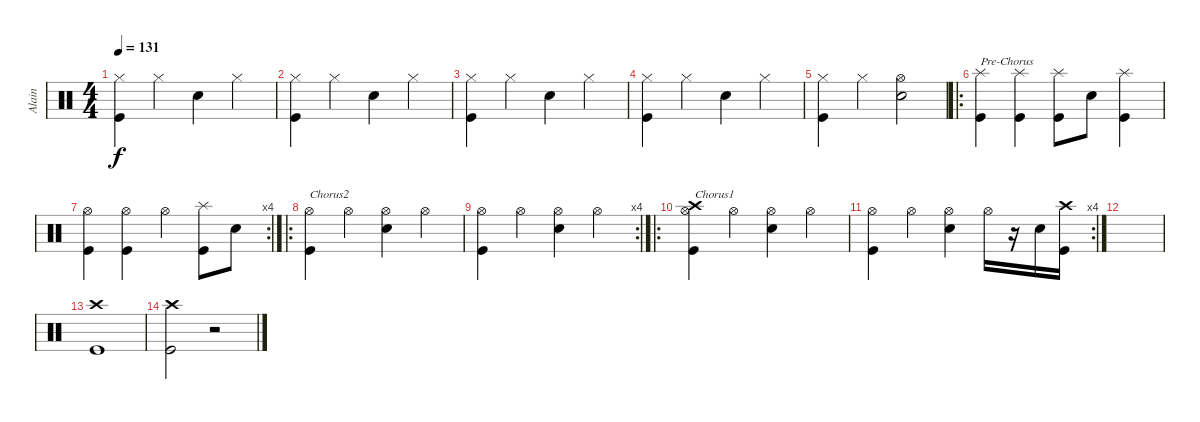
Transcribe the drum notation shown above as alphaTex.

\track ("Alain" "Alain") {instrument percussion}
\staff {score}
\articulation defaults
\ts (4 4)
\tempo 131
\clef neutral
\ks c
("Hi-Hat (closed)" "Kick (hit)").4{dy f} "Hi-Hat (closed)".4 "Electric Snare (hit)".4 "Hi-Hat (closed)".4 |
("Hi-Hat (closed)" "Kick (hit)").4 "Hi-Hat (closed)".4 "Electric Snare (hit)".4 "Hi-Hat (closed)".4 |
("Hi-Hat (closed)" "Kick (hit)").4 "Hi-Hat (closed)".4 "Electric Snare (hit)".4 "Hi-Hat (closed)".4 |
("Hi-Hat (closed)" "Kick (hit)").4 "Hi-Hat (closed)".4 "Electric Snare (hit)".4 "Hi-Hat (closed)".4 |
("Hi-Hat (closed)" "Kick (hit)").4 "Hi-Hat (closed)".4 ("Hi-Hat (open)" "Electric Snare (hit)").2 |
\ro
("Splash (hit)" "Kick (hit)").4{txt "Pre-Chorus"} ("Splash (hit)" "Kick (hit)").4 ("Splash (hit)" "Kick (hit)").8 "Snare (hit) 2".8 ("Splash (hit)" "Kick (hit)").4 |
\rc 4
("Hi-Hat (open)" "Kick (hit)").4 ("Hi-Hat (open)" "Kick (hit)").4 "Hi-Hat (open)".4 ("Splash (hit)" "Kick (hit)").8 "Snare (hit) 2".8 |
\ro
("Hi-Hat (open)" "Kick (hit)").4{txt "Chorus2"} "Hi-Hat (open)".4 ("Hi-Hat (open)" "Snare (hit) 2").4 "Hi-Hat (open)".4 |
\rc 4
("Hi-Hat (open)" "Kick (hit)").4 "Hi-Hat (open)".4 ("Hi-Hat (open)" "Snare (hit) 2").4 "Hi-Hat (open)".4 |
\ro
("Crash high (hit)" "Hi-Hat (open)" "Kick (hit)").4{txt "Chorus1"} "Hi-Hat (open)".4 ("Hi-Hat (open)" "Snare (hit) 2").4 "Hi-Hat (open)".4 |
\rc 4
("Hi-Hat (open)" "Kick (hit)").4 "Hi-Hat (open)".4 ("Hi-Hat (open)" "Snare (hit) 2").4 "Hi-Hat (open)".16 r.16 "Snare (hit) 2".16 ("Crash high (hit)" "Kick (hit)").16 |
|
("Crash high (hit)" "Kick (hit)").1 |
("Crash high (hit)" "Kick (hit)").2 r.2
